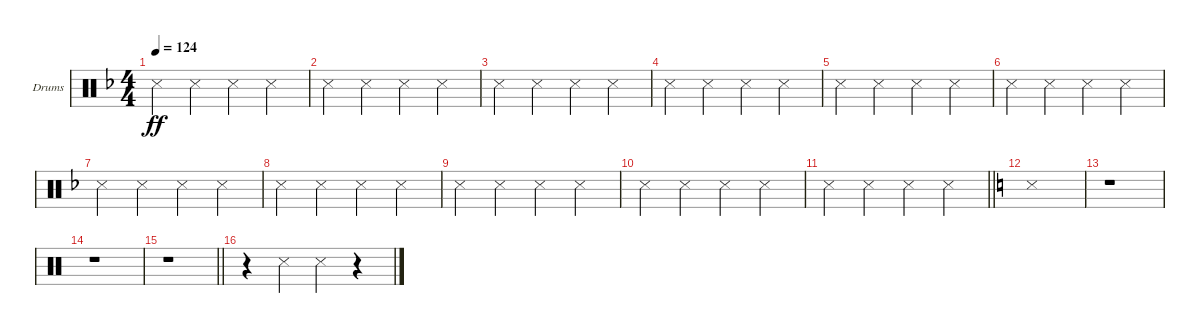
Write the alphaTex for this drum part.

\bracketExtendMode groupsimilarinstruments
\firstSystemTrackNameOrientation horizontal
\otherSystemsTrackNameOrientation horizontal
\track ("Sidestick Clave Pattern" "Drums") {instrument percussion}
\staff {score}
\articulation defaults
\ts (4 4)
\tempo 124
\clef neutral
\scale
0.333333
\ks dminor "Snare (side stick) 3".4{dy ff} "Snare (side stick) 3".4 "Snare (side stick) 3".4 "Snare (side stick) 3".4
|
\scale
0.333333 "Snare (side stick) 3".4 "Snare (side stick) 3".4 "Snare (side stick) 3".4 "Snare (side stick) 3".4 |
\scale
0.333333 "Snare (side stick) 3".4 "Snare (side stick) 3".4 "Snare (side stick) 3".4 "Snare (side stick) 3".4 |
\scale
0.333333 "Snare (side stick) 3".4 "Snare (side stick) 3".4 "Snare (side stick) 3".4 "Snare (side stick) 3".4 |
\scale
0.333333 "Snare (side stick) 3".4 "Snare (side stick) 3".4 "Snare (side stick) 3".4 "Snare (side stick) 3".4 |
\scale
0.333333 "Snare (side stick) 3".4 "Snare (side stick) 3".4 "Snare (side stick) 3".4 "Snare (side stick) 3".4 |
\scale
0.333333 "Snare (side stick) 3".4 "Snare (side stick) 3".4 "Snare (side stick) 3".4 "Snare (side stick) 3".4 |
\scale
0.333333 "Snare (side stick) 3".4 "Snare (side stick) 3".4 "Snare (side stick) 3".4 "Snare (side stick) 3".4 |
\scale
0.333333 "Snare (side stick) 3".4 "Snare (side stick) 3".4 "Snare (side stick) 3".4 "Snare (side stick) 3".4 |
\scale
0.273171 "Snare (side stick) 3".4 "Snare (side stick) 3".4 "Snare (side stick) 3".4 "Snare (side stick) 3".4 |
\scale
0.273171
\barLineRight lightlight "Snare (side stick) 3".4 "Snare (side stick) 3".4 "Snare (side stick) 3".4 "Snare (side stick) 3".4
|
\scale
0.453659
\ks c "Snare (side stick) 3".1
|
\scale
0.333333 r.1 |
\scale
0.333333 r.1 |
\scale
0.333333
\barLineRight lightlight
r.1 |
\scale
0.333333 r.4 "Snare (side stick) 3".4 "Snare (side stick) 3".4 r.4
